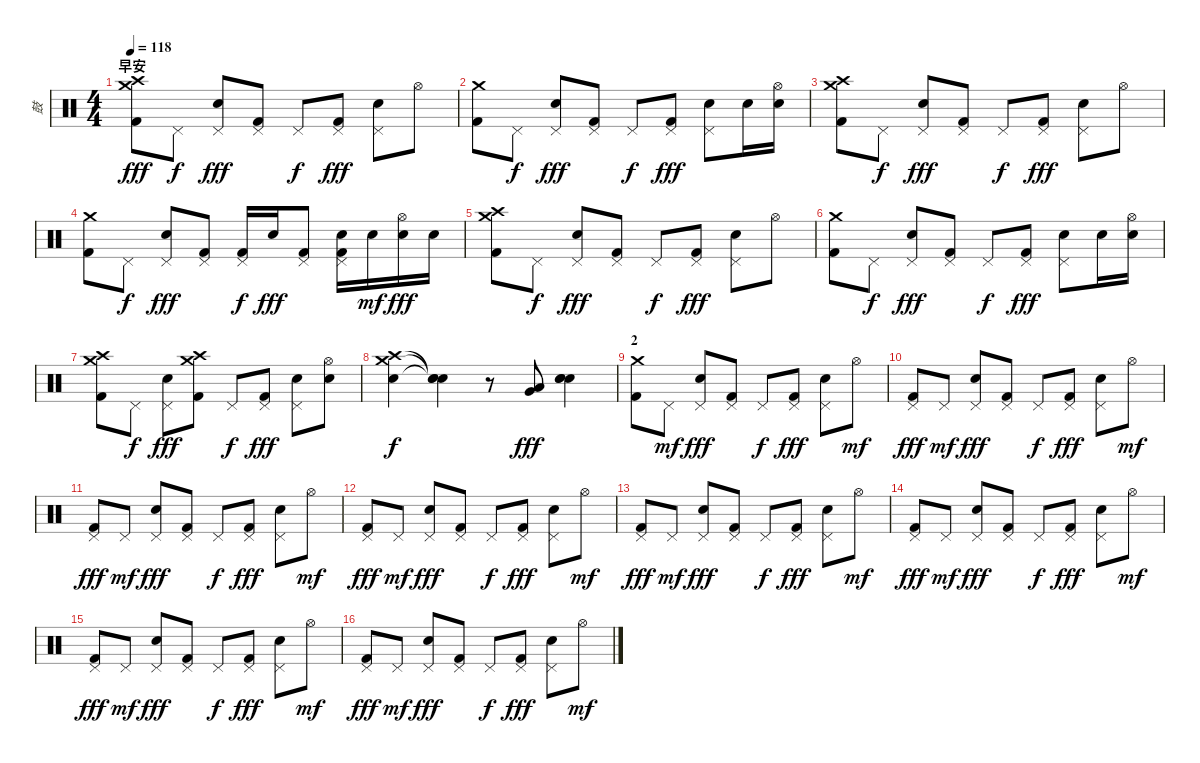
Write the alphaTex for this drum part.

\track ("鼓" "鼓") {instrument percussion}
\staff {score}
\articulation defaults
\ts (4 4)
\section ("" "早安")
\tempo 118
\clef neutral
\ks c
("Crash medium (hit)" "Crash high (hit)" "Kick (hit) 2").8{dy fff} "Pedal Hi-Hat (hit)".8{dy f} ("Pedal Hi-Hat (hit)" "Snare (hit) 2").8{dy fff} ("Pedal Hi-Hat (hit)" "Kick (hit) 2").8 "Pedal Hi-Hat (hit)".8{dy f} ("Pedal Hi-Hat (hit)" "Kick (hit) 2").8{dy fff} ("Pedal Hi-Hat (hit)" "Snare (hit) 2").8 "Hi-Hat (open)".8 |
("Crash medium (hit)" "Kick (hit) 2").8 "Pedal Hi-Hat (hit)".8{dy f} ("Pedal Hi-Hat (hit)" "Snare (hit) 2").8{dy fff} ("Pedal Hi-Hat (hit)" "Kick (hit) 2").8 "Pedal Hi-Hat (hit)".8{dy f} ("Pedal Hi-Hat (hit)" "Kick (hit) 2").8{dy fff} ("Pedal Hi-Hat (hit)" "Snare (hit) 2").8 "Snare (hit) 2".16 ("Hi-Hat (open)" "Snare (hit) 2").16 |
("Crash medium (hit)" "Crash high (hit)" "Kick (hit) 2").8 "Pedal Hi-Hat (hit)".8{dy f} ("Pedal Hi-Hat (hit)" "Snare (hit) 2").8{dy fff} ("Pedal Hi-Hat (hit)" "Kick (hit) 2").8 "Pedal Hi-Hat (hit)".8{dy f} ("Pedal Hi-Hat (hit)" "Kick (hit) 2").8{dy fff} ("Pedal Hi-Hat (hit)" "Snare (hit) 2").8 "Hi-Hat (open)".8 |
("Crash medium (hit)" "Kick (hit) 2").8 "Pedal Hi-Hat (hit)".8{dy f} ("Pedal Hi-Hat (hit)" "Snare (hit) 2").8{dy fff} ("Pedal Hi-Hat (hit)" "Kick (hit) 2").8 ("Pedal Hi-Hat (hit)" "Kick (hit) 2").16{dy f} "Snare (hit) 2".16{dy fff} ("Pedal Hi-Hat (hit)" "Kick (hit) 2").8 ("Pedal Hi-Hat (hit)" "Snare (hit) 2" "Kick (hit) 2").16 "Snare (hit) 2".16{dy mf} ("Hi-Hat (open)" "Snare (hit) 2").16{dy fff} "Snare (hit) 2".16 |
("Crash medium (hit)" "Crash high (hit)" "Kick (hit) 2").8 "Pedal Hi-Hat (hit)".8{dy f} ("Pedal Hi-Hat (hit)" "Snare (hit) 2").8{dy fff} ("Pedal Hi-Hat (hit)" "Kick (hit) 2").8 "Pedal Hi-Hat (hit)".8{dy f} ("Pedal Hi-Hat (hit)" "Kick (hit) 2").8{dy fff} ("Pedal Hi-Hat (hit)" "Snare (hit) 2").8 "Hi-Hat (open)".8 |
("Crash medium (hit)" "Kick (hit) 2").8 "Pedal Hi-Hat (hit)".8{dy f} ("Pedal Hi-Hat (hit)" "Snare (hit) 2").8{dy fff} ("Pedal Hi-Hat (hit)" "Kick (hit) 2").8 "Pedal Hi-Hat (hit)".8{dy f} ("Pedal Hi-Hat (hit)" "Kick (hit) 2").8{dy fff} ("Pedal Hi-Hat (hit)" "Snare (hit) 2").8 "Snare (hit) 2".16 ("Hi-Hat (open)" "Snare (hit) 2").16 |
("Crash medium (hit)" "Crash high (hit)" "Kick (hit) 2").8 "Pedal Hi-Hat (hit)".8{dy f} ("Pedal Hi-Hat (hit)" "Snare (hit) 2").8{dy fff} ("Crash medium (hit)" "Crash high (hit)" "Kick (hit) 2").8 "Pedal Hi-Hat (hit)".8{dy f} ("Pedal Hi-Hat (hit)" "Kick (hit) 2").8{dy fff} ("Pedal Hi-Hat (hit)" "Snare (hit) 2").8 ("Hi-Hat (open)" "Snare (hit) 2").8 |
("Crash high (hit)" "Crash medium (hit)" "Snare (hit) 2").4{dy f} ("Snare (hit)"{t} "Snare (hit)"{t} "Snare (hit)"{t}).4 r.8 ("Very Low Tom (hit)" "Low Tom (hit)").8{dy fff} ("Snare (hit) 2" "Snare (hit) 2" "Electric Snare (hit)").4 |
\section ("" "2")
("Crash medium (hit)" "Kick (hit) 2").8 "Pedal Hi-Hat (hit)".8{dy mf} ("Pedal Hi-Hat (hit)" "Snare (hit) 2").8{dy fff} ("Pedal Hi-Hat (hit)" "Kick (hit) 2").8 "Pedal Hi-Hat (hit)".8{dy f} ("Pedal Hi-Hat (hit)" "Kick (hit) 2").8{dy fff} ("Pedal Hi-Hat (hit)" "Snare (hit) 2").8 "Hi-Hat (open)".8{dy mf} |
("Pedal Hi-Hat (hit)" "Kick (hit) 2").8{dy fff} "Pedal Hi-Hat (hit)".8{dy mf} ("Pedal Hi-Hat (hit)" "Snare (hit) 2").8{dy fff} ("Pedal Hi-Hat (hit)" "Kick (hit) 2").8 "Pedal Hi-Hat (hit)".8{dy f} ("Pedal Hi-Hat (hit)" "Kick (hit) 2").8{dy fff} ("Pedal Hi-Hat (hit)" "Snare (hit) 2").8 "Hi-Hat (open)".8{dy mf} |
("Pedal Hi-Hat (hit)" "Kick (hit) 2").8{dy fff} "Pedal Hi-Hat (hit)".8{dy mf} ("Pedal Hi-Hat (hit)" "Snare (hit) 2").8{dy fff} ("Pedal Hi-Hat (hit)" "Kick (hit) 2").8 "Pedal Hi-Hat (hit)".8{dy f} ("Pedal Hi-Hat (hit)" "Kick (hit) 2").8{dy fff} ("Pedal Hi-Hat (hit)" "Snare (hit) 2").8 "Hi-Hat (open)".8{dy mf} |
("Pedal Hi-Hat (hit)" "Kick (hit) 2").8{dy fff} "Pedal Hi-Hat (hit)".8{dy mf} ("Pedal Hi-Hat (hit)" "Snare (hit) 2").8{dy fff} ("Pedal Hi-Hat (hit)" "Kick (hit) 2").8 "Pedal Hi-Hat (hit)".8{dy f} ("Pedal Hi-Hat (hit)" "Kick (hit) 2").8{dy fff} ("Pedal Hi-Hat (hit)" "Snare (hit) 2").8 "Hi-Hat (open)".8{dy mf} |
("Pedal Hi-Hat (hit)" "Kick (hit) 2").8{dy fff} "Pedal Hi-Hat (hit)".8{dy mf} ("Pedal Hi-Hat (hit)" "Snare (hit) 2").8{dy fff} ("Pedal Hi-Hat (hit)" "Kick (hit) 2").8 "Pedal Hi-Hat (hit)".8{dy f} ("Pedal Hi-Hat (hit)" "Kick (hit) 2").8{dy fff} ("Pedal Hi-Hat (hit)" "Snare (hit) 2").8 "Hi-Hat (open)".8{dy mf} |
("Pedal Hi-Hat (hit)" "Kick (hit) 2").8{dy fff} "Pedal Hi-Hat (hit)".8{dy mf} ("Pedal Hi-Hat (hit)" "Snare (hit) 2").8{dy fff} ("Pedal Hi-Hat (hit)" "Kick (hit) 2").8 "Pedal Hi-Hat (hit)".8{dy f} ("Pedal Hi-Hat (hit)" "Kick (hit) 2").8{dy fff} ("Pedal Hi-Hat (hit)" "Snare (hit) 2").8 "Hi-Hat (open)".8{dy mf} |
("Pedal Hi-Hat (hit)" "Kick (hit) 2").8{dy fff} "Pedal Hi-Hat (hit)".8{dy mf} ("Pedal Hi-Hat (hit)" "Snare (hit) 2").8{dy fff} ("Pedal Hi-Hat (hit)" "Kick (hit) 2").8 "Pedal Hi-Hat (hit)".8{dy f} ("Pedal Hi-Hat (hit)" "Kick (hit) 2").8{dy fff} ("Pedal Hi-Hat (hit)" "Snare (hit) 2").8 "Hi-Hat (open)".8{dy mf} |
("Pedal Hi-Hat (hit)" "Kick (hit) 2").8{dy fff} "Pedal Hi-Hat (hit)".8{dy mf} ("Pedal Hi-Hat (hit)" "Snare (hit) 2").8{dy fff} ("Pedal Hi-Hat (hit)" "Kick (hit) 2").8 "Pedal Hi-Hat (hit)".8{dy f} ("Pedal Hi-Hat (hit)" "Kick (hit) 2").8{dy fff} ("Pedal Hi-Hat (hit)" "Snare (hit) 2").8 "Hi-Hat (open)".8{dy mf}
